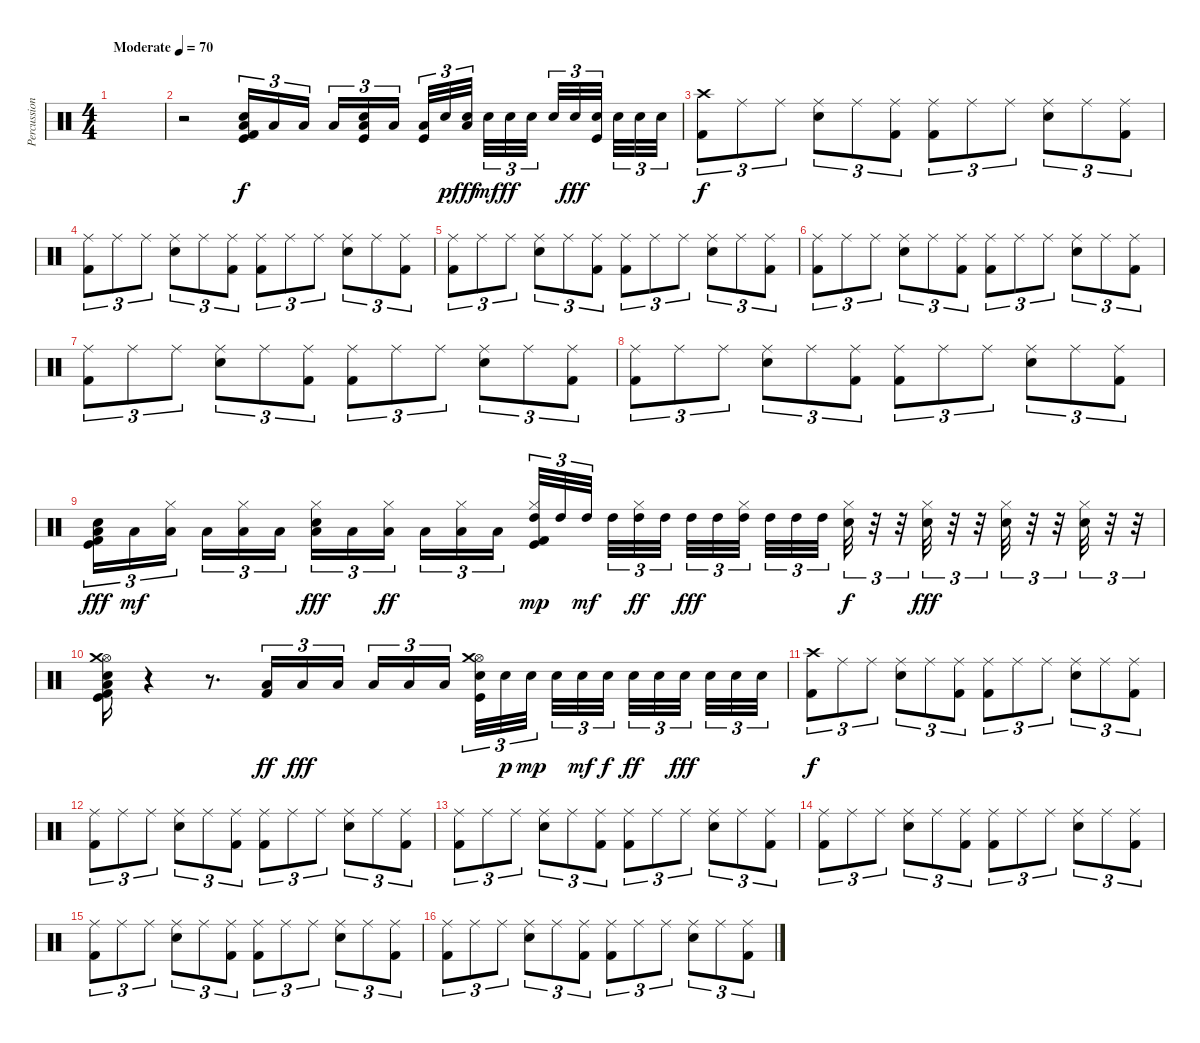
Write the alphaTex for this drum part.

\track ("Percussion" "Percussion") {instrument percussion}
\staff {score}
\articulation defaults
\ts (4 4)
\tempo (70 "Moderate")
\clef neutral
\ks c
|
r.2 ("Kick (hit)" "Electric Snare (hit)" "Low Floor Tom (hit)" "Kick (hit) 2").16{tu (3 2)} "Low Floor Tom (hit)".16{tu (3 2)} "Low Floor Tom (hit)".16{tu (3 2) beam splitsecondary} "Low Floor Tom (hit)".16{tu (3 2)} ("Kick (hit)" "Electric Snare (hit)" "Low Tom (hit)").16{tu (3 2)} "Low Tom (hit)".16{tu (3 2)} ("Kick (hit)" "Low Tom (hit)").32{tu (3 2)} "Electric Snare (hit)".32{tu (3 2) dy p} ("Electric Snare (hit)" "Low Tom (hit)").32{tu (3 2) dy fff beam splitsecondary} "Electric Snare (hit)".32{tu (3 2) dy mf} "Electric Snare (hit)".32{tu (3 2) dy ff} "Electric Snare (hit)".32{tu (3 2) beam splitsecondary} "Electric Snare (hit)".32{tu (3 2)} "Electric Snare (hit)".32{tu (3 2) dy fff} ("Kick (hit)" "Electric Snare (hit)").32{tu (3 2) beam splitsecondary} "Electric Snare (hit)".32{tu (3 2)} "Electric Snare (hit)".32{tu (3 2)} "Electric Snare (hit)".32{tu (3 2)} |
("Crash high (hit)" "Kick (hit) 2").8{tu (3 2) dy f} "Ride (middle)".8{tu (3 2)} "Ride (middle)".8{tu (3 2)} ("Snare (hit) 2" "Ride (middle)").8{tu (3 2)} "Ride (middle)".8{tu (3 2)} ("Ride (middle)" "Kick (hit) 2").8{tu (3 2)} ("Ride (middle)" "Kick (hit) 2").8{tu (3 2)} "Ride (middle)".8{tu (3 2)} "Ride (middle)".8{tu (3 2)} ("Snare (hit) 2" "Ride (middle)").8{tu (3 2)} "Ride (middle)".8{tu (3 2)} ("Ride (middle)" "Kick (hit) 2").8{tu (3 2)} |
("Ride (middle)" "Kick (hit) 2").8{tu (3 2)} "Ride (middle)".8{tu (3 2)} "Ride (middle)".8{tu (3 2)} ("Snare (hit) 2" "Ride (middle)").8{tu (3 2)} "Ride (middle)".8{tu (3 2)} ("Ride (middle)" "Kick (hit) 2").8{tu (3 2)} ("Ride (middle)" "Kick (hit) 2").8{tu (3 2)} "Ride (middle)".8{tu (3 2)} "Ride (middle)".8{tu (3 2)} ("Snare (hit) 2" "Ride (middle)").8{tu (3 2)} "Ride (middle)".8{tu (3 2)} ("Ride (middle)" "Kick (hit) 2").8{tu (3 2)} |
("Ride (middle)" "Kick (hit) 2").8{tu (3 2)} "Ride (middle)".8{tu (3 2)} "Ride (middle)".8{tu (3 2)} ("Snare (hit) 2" "Ride (middle)").8{tu (3 2)} "Ride (middle)".8{tu (3 2)} ("Ride (middle)" "Kick (hit) 2").8{tu (3 2)} ("Ride (middle)" "Kick (hit) 2").8{tu (3 2)} "Ride (middle)".8{tu (3 2)} "Ride (middle)".8{tu (3 2)} ("Snare (hit) 2" "Ride (middle)").8{tu (3 2)} "Ride (middle)".8{tu (3 2)} ("Ride (middle)" "Kick (hit) 2").8{tu (3 2)} |
("Ride (middle)" "Kick (hit) 2").8{tu (3 2)} "Ride (middle)".8{tu (3 2)} "Ride (middle)".8{tu (3 2)} ("Snare (hit) 2" "Ride (middle)").8{tu (3 2)} "Ride (middle)".8{tu (3 2)} ("Ride (middle)" "Kick (hit) 2").8{tu (3 2)} ("Ride (middle)" "Kick (hit) 2").8{tu (3 2)} "Ride (middle)".8{tu (3 2)} "Ride (middle)".8{tu (3 2)} ("Snare (hit) 2" "Ride (middle)").8{tu (3 2)} "Ride (middle)".8{tu (3 2)} ("Ride (middle)" "Kick (hit) 2").8{tu (3 2)} |
("Ride (middle)" "Kick (hit) 2").8{tu (3 2)} "Ride (middle)".8{tu (3 2)} "Ride (middle)".8{tu (3 2)} ("Snare (hit) 2" "Ride (middle)").8{tu (3 2)} "Ride (middle)".8{tu (3 2)} ("Ride (middle)" "Kick (hit) 2").8{tu (3 2)} ("Ride (middle)" "Kick (hit) 2").8{tu (3 2)} "Ride (middle)".8{tu (3 2)} "Ride (middle)".8{tu (3 2)} ("Snare (hit) 2" "Ride (middle)").8{tu (3 2)} "Ride (middle)".8{tu (3 2)} ("Ride (middle)" "Kick (hit) 2").8{tu (3 2)} |
("Ride (middle)" "Kick (hit) 2").8{tu (3 2)} "Ride (middle)".8{tu (3 2)} "Ride (middle)".8{tu (3 2)} ("Snare (hit) 2" "Ride (middle)").8{tu (3 2)} "Ride (middle)".8{tu (3 2)} ("Ride (middle)" "Kick (hit) 2").8{tu (3 2)} ("Ride (middle)" "Kick (hit) 2").8{tu (3 2)} "Ride (middle)".8{tu (3 2)} "Ride (middle)".8{tu (3 2)} ("Snare (hit) 2" "Ride (middle)").8{tu (3 2)} "Ride (middle)".8{tu (3 2)} ("Ride (middle)" "Kick (hit) 2").8{tu (3 2)} |
("Kick (hit)" "Electric Snare (hit)" "Low Floor Tom (hit)" "Kick (hit) 2").16{tu (3 2) dy fff} "Low Floor Tom (hit)".16{tu (3 2) dy mf} ("Low Floor Tom (hit)" "Hi-Hat (closed)").16{tu (3 2) beam splitsecondary} "Low Floor Tom (hit)".16{tu (3 2)} ("Low Floor Tom (hit)" "Hi-Hat (closed)").16{tu (3 2)} "Low Floor Tom (hit)".16{tu (3 2)} ("Electric Snare (hit)" "Hi-Hat (closed)" "Low Tom (hit)").16{tu (3 2) dy fff} "Low Tom (hit)".16{tu (3 2)} ("Hi-Hat (closed)" "Low Tom (hit)").16{tu (3 2) dy ff beam splitsecondary} "Low Tom (hit)".16{tu (3 2)} ("Hi-Hat (closed)" "Low Tom (hit)").16{tu (3 2)} "Low Tom (hit)".16{tu (3 2)} ("Kick (hit)" "Hi-Hat (closed)" "High Tom (hit)" "Kick (hit) 2").32{tu (3 2) dy mp} "High Tom (hit)".32{tu (3 2)} "High Tom (hit)".32{tu (3 2) dy mf beam splitsecondary} "High Tom (hit)".32{tu (3 2)} ("Hi-Hat (closed)" "High Tom (hit)").32{tu (3 2) dy ff} "High Tom (hit)".32{tu (3 2) beam splitsecondary} "High Tom (hit)".32{tu (3 2) dy fff} "High Tom (hit)".32{tu (3 2)} ("Hi-Hat (closed)" "High Tom (hit)").32{tu (3 2) beam splitsecondary} "High Tom (hit)".32{tu (3 2)} "High Tom (hit)".32{tu (3 2)} "High Tom (hit)".32{tu (3 2)} ("Electric Snare (hit)" "Hi-Hat (closed)").32{tu (3 2) dy f} r.32{tu (3 2)} r.32{tu (3 2)} ("Electric Snare (hit)" "Hi-Hat (closed)").32{tu (3 2) dy fff} r.32{tu (3 2)} r.32{tu (3 2)} ("Electric Snare (hit)" "Hi-Hat (closed)").32{tu (3 2)} r.32{tu (3 2)} r.32{tu (3 2)} ("Electric Snare (hit)" "Hi-Hat (closed)").32{tu (3 2)} r.32{tu (3 2)} r.32{tu (3 2)} |
("Kick (hit)" "Electric Snare (hit)" "Low Floor Tom (hit)" "Hi-Hat (open)" "Crash medium (hit)" "Kick (hit) 2").16 r.4 r.8{d} ("Low Tom (hit)" "Kick (hit) 2").16{tu (3 2) dy ff} "Low Tom (hit)".16{tu (3 2) dy fff} "Low Tom (hit)".16{tu (3 2) beam splitsecondary} "Low Tom (hit)".16{tu (3 2)} "Low Tom (hit)".16{tu (3 2)} "Low Tom (hit)".16{tu (3 2)} ("Kick (hit)" "Electric Snare (hit)" "Hi-Hat (open)" "Crash medium (hit)").32{tu (3 2)} "Electric Snare (hit)".32{tu (3 2) dy p} "Electric Snare (hit)".32{tu (3 2) dy mp beam splitsecondary} "Electric Snare (hit)".32{tu (3 2)} "Electric Snare (hit)".32{tu (3 2) dy mf} "Electric Snare (hit)".32{tu (3 2) dy f beam splitsecondary} "Electric Snare (hit)".32{tu (3 2) dy ff} "Electric Snare (hit)".32{tu (3 2)} "Electric Snare (hit)".32{tu (3 2) dy fff beam splitsecondary} "Electric Snare (hit)".32{tu (3 2)} "Electric Snare (hit)".32{tu (3 2)} "Electric Snare (hit)".32{tu (3 2)} |
("Crash high (hit)" "Kick (hit) 2").8{tu (3 2) dy f} "Ride (middle)".8{tu (3 2)} "Ride (middle)".8{tu (3 2)} ("Snare (hit) 2" "Ride (middle)").8{tu (3 2)} "Ride (middle)".8{tu (3 2)} ("Ride (middle)" "Kick (hit) 2").8{tu (3 2)} ("Ride (middle)" "Kick (hit) 2").8{tu (3 2)} "Ride (middle)".8{tu (3 2)} "Ride (middle)".8{tu (3 2)} ("Snare (hit) 2" "Ride (middle)").8{tu (3 2)} "Ride (middle)".8{tu (3 2)} ("Ride (middle)" "Kick (hit) 2").8{tu (3 2)} |
("Ride (middle)" "Kick (hit) 2").8{tu (3 2)} "Ride (middle)".8{tu (3 2)} "Ride (middle)".8{tu (3 2)} ("Snare (hit) 2" "Ride (middle)").8{tu (3 2)} "Ride (middle)".8{tu (3 2)} ("Ride (middle)" "Kick (hit) 2").8{tu (3 2)} ("Ride (middle)" "Kick (hit) 2").8{tu (3 2)} "Ride (middle)".8{tu (3 2)} "Ride (middle)".8{tu (3 2)} ("Snare (hit) 2" "Ride (middle)").8{tu (3 2)} "Ride (middle)".8{tu (3 2)} ("Ride (middle)" "Kick (hit) 2").8{tu (3 2)} |
("Ride (middle)" "Kick (hit) 2").8{tu (3 2)} "Ride (middle)".8{tu (3 2)} "Ride (middle)".8{tu (3 2)} ("Snare (hit) 2" "Ride (middle)").8{tu (3 2)} "Ride (middle)".8{tu (3 2)} ("Ride (middle)" "Kick (hit) 2").8{tu (3 2)} ("Ride (middle)" "Kick (hit) 2").8{tu (3 2)} "Ride (middle)".8{tu (3 2)} "Ride (middle)".8{tu (3 2)} ("Snare (hit) 2" "Ride (middle)").8{tu (3 2)} "Ride (middle)".8{tu (3 2)} ("Ride (middle)" "Kick (hit) 2").8{tu (3 2)} |
("Ride (middle)" "Kick (hit) 2").8{tu (3 2)} "Ride (middle)".8{tu (3 2)} "Ride (middle)".8{tu (3 2)} ("Snare (hit) 2" "Ride (middle)").8{tu (3 2)} "Ride (middle)".8{tu (3 2)} ("Ride (middle)" "Kick (hit) 2").8{tu (3 2)} ("Ride (middle)" "Kick (hit) 2").8{tu (3 2)} "Ride (middle)".8{tu (3 2)} "Ride (middle)".8{tu (3 2)} ("Snare (hit) 2" "Ride (middle)").8{tu (3 2)} "Ride (middle)".8{tu (3 2)} ("Ride (middle)" "Kick (hit) 2").8{tu (3 2)} |
("Ride (middle)" "Kick (hit) 2").8{tu (3 2)} "Ride (middle)".8{tu (3 2)} "Ride (middle)".8{tu (3 2)} ("Snare (hit) 2" "Ride (middle)").8{tu (3 2)} "Ride (middle)".8{tu (3 2)} ("Ride (middle)" "Kick (hit) 2").8{tu (3 2)} ("Ride (middle)" "Kick (hit) 2").8{tu (3 2)} "Ride (middle)".8{tu (3 2)} "Ride (middle)".8{tu (3 2)} ("Snare (hit) 2" "Ride (middle)").8{tu (3 2)} "Ride (middle)".8{tu (3 2)} ("Ride (middle)" "Kick (hit) 2").8{tu (3 2)} |
("Ride (middle)" "Kick (hit) 2").8{tu (3 2)} "Ride (middle)".8{tu (3 2)} "Ride (middle)".8{tu (3 2)} ("Snare (hit) 2" "Ride (middle)").8{tu (3 2)} "Ride (middle)".8{tu (3 2)} ("Ride (middle)" "Kick (hit) 2").8{tu (3 2)} ("Ride (middle)" "Kick (hit) 2").8{tu (3 2)} "Ride (middle)".8{tu (3 2)} "Ride (middle)".8{tu (3 2)} ("Snare (hit) 2" "Ride (middle)").8{tu (3 2)} "Ride (middle)".8{tu (3 2)} ("Ride (middle)" "Kick (hit) 2").8{tu (3 2)}
